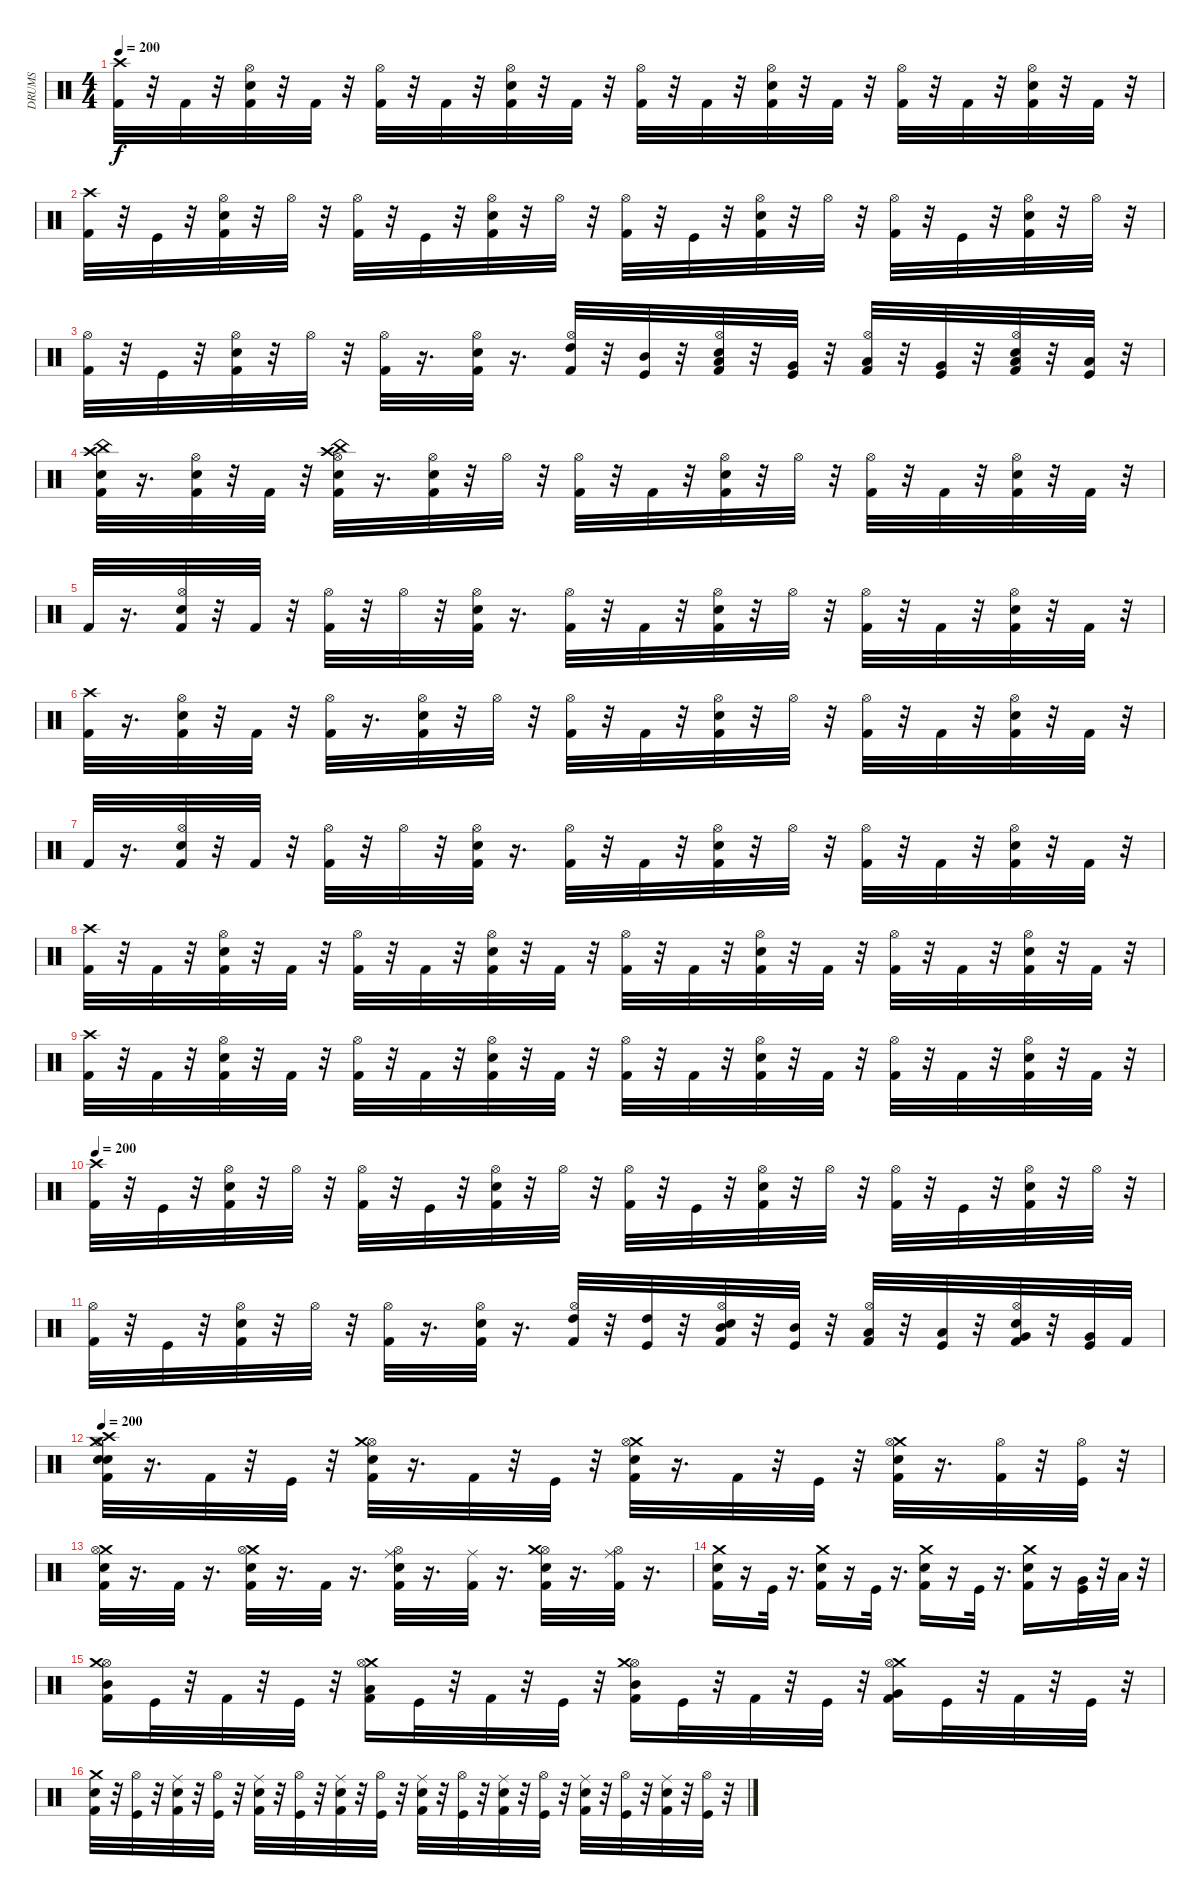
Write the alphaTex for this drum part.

\track ("DRUMS" "DRUMS") {instrument percussion}
\staff {score}
\articulation defaults
\ts (4 4)
\tempo 200
\clef neutral
\ks c
("Crash high (hit)" "Kick (hit) 2").32{dy f} r.32 "Kick (hit) 2".32 r.32 ("Hi-Hat (open)" "Snare (hit) 2" "Kick (hit) 2").32 r.32 "Kick (hit) 2".32 r.32 ("Hi-Hat (open)" "Kick (hit) 2").32 r.32 "Kick (hit) 2".32 r.32 ("Kick (hit) 2" "Snare (hit) 2" "Hi-Hat (open)").32 r.32 "Kick (hit) 2".32 r.32 ("Kick (hit) 2" "Hi-Hat (open)").32 r.32 "Kick (hit) 2".32 r.32 ("Snare (hit) 2" "Kick (hit) 2" "Hi-Hat (open)").32 r.32 "Kick (hit) 2".32 r.32 ("Hi-Hat (open)" "Kick (hit) 2").32 r.32 "Kick (hit) 2".32 r.32 ("Kick (hit) 2" "Hi-Hat (open)" "Snare (hit) 2").32 r.32 "Kick (hit) 2".32 r.32 |
("Crash high (hit)" "Kick (hit) 2").32 r.32 "Kick (hit)".32 r.32 ("Snare (hit) 2" "Hi-Hat (open)" "Kick (hit) 2").32 r.32 "Hi-Hat (open)".32 r.32 ("Kick (hit) 2" "Hi-Hat (open)").32 r.32 "Kick (hit)".32 r.32 ("Hi-Hat (open)" "Snare (hit) 2" "Kick (hit) 2").32 r.32 "Hi-Hat (open)".32 r.32 ("Hi-Hat (open)" "Kick (hit) 2").32 r.32 "Kick (hit)".32 r.32 ("Snare (hit) 2" "Kick (hit) 2" "Hi-Hat (open)").32 r.32 "Hi-Hat (open)".32 r.32 ("Kick (hit) 2" "Hi-Hat (open)").32 r.32 "Kick (hit)".32 r.32 ("Kick (hit) 2" "Hi-Hat (open)" "Snare (hit) 2").32 r.32 "Hi-Hat (open)".32 r.32 |
("Kick (hit) 2" "Hi-Hat (open)").32 r.32 "Kick (hit)".32 r.32 ("Hi-Hat (open)" "Snare (hit) 2" "Kick (hit) 2").32 r.32 "Hi-Hat (open)".32 r.32 ("Kick (hit) 2" "Hi-Hat (open)").32 r.16{d} ("Kick (hit) 2" "Snare (hit) 2" "Hi-Hat (open)").32 r.16{d} ("High Tom (hit)" "Kick (hit) 2" "Hi-Hat (open)").32 r.32 ("Kick (hit)" "Mid Tom (hit)").32 r.32 ("Low Tom (hit)" "Kick (hit) 2" "Hi-Hat (open)" "Snare (hit) 2").32 r.32 ("Kick (hit)" "Very Low Tom (hit)").32 r.32 ("Kick (hit) 2" "Hi-Hat (open)" "Low Tom (hit)").32 r.32 ("Kick (hit)" "Very Low Tom (hit)").32 r.32 ("Kick (hit) 2" "Low Floor Tom (hit)" "Snare (hit) 2" "Hi-Hat (open)").32 r.32 ("Kick (hit)" "Low Floor Tom (hit)").32 r.32 |
("China (hit)" "Snare (hit) 2" "Crash high (hit)" "Kick (hit) 2").32 r.16{d} ("Kick (hit) 2" "Hi-Hat (open)" "Snare (hit) 2").32 r.32 "Kick (hit) 2".32 r.32 ("China (hit)" "Hi-Hat (open)" "Crash high (hit)" "Kick (hit) 2" "Snare (hit) 2").32 r.16{d} ("Snare (hit) 2" "Kick (hit) 2" "Hi-Hat (open)").32 r.32 "Hi-Hat (open)".32 r.32 ("Hi-Hat (open)" "Kick (hit) 2").32 r.32 "Kick (hit) 2".32 r.32 ("Hi-Hat (open)" "Kick (hit) 2" "Snare (hit) 2").32 r.32 "Hi-Hat (open)".32 r.32 ("Hi-Hat (open)" "Kick (hit) 2").32 r.32 "Kick (hit) 2".32 r.32 ("Hi-Hat (open)" "Kick (hit) 2" "Snare (hit) 2").32 r.32 "Kick (hit) 2".32 r.32 |
"Kick (hit) 2".32 r.16{d} ("Kick (hit) 2" "Snare (hit) 2" "Hi-Hat (open)").32 r.32 "Kick (hit) 2".32 r.32 ("Kick (hit) 2" "Hi-Hat (open)").32 r.32 "Hi-Hat (open)".32 r.32 ("Kick (hit) 2" "Hi-Hat (open)" "Snare (hit) 2").32 r.16{d} ("Hi-Hat (open)" "Kick (hit) 2").32 r.32 "Kick (hit) 2".32 r.32 ("Kick (hit) 2" "Hi-Hat (open)" "Snare (hit) 2").32 r.32 "Hi-Hat (open)".32 r.32 ("Hi-Hat (open)" "Kick (hit) 2").32 r.32 "Kick (hit) 2".32 r.32 ("Hi-Hat (open)" "Snare (hit) 2" "Kick (hit) 2").32 r.32 "Kick (hit) 2".32 r.32 |
("Kick (hit) 2" "Crash high (hit)").32 r.16{d} ("Hi-Hat (open)" "Kick (hit) 2" "Snare (hit) 2").32 r.32 "Kick (hit) 2".32 r.32 ("Hi-Hat (open)" "Kick (hit) 2").32 r.16{d} ("Kick (hit) 2" "Snare (hit) 2" "Hi-Hat (open)").32 r.32 "Hi-Hat (open)".32 r.32 ("Hi-Hat (open)" "Kick (hit) 2").32 r.32 "Kick (hit) 2".32 r.32 ("Snare (hit) 2" "Hi-Hat (open)" "Kick (hit) 2").32 r.32 "Hi-Hat (open)".32 r.32 ("Kick (hit) 2" "Hi-Hat (open)").32 r.32 "Kick (hit) 2".32 r.32 ("Hi-Hat (open)" "Kick (hit) 2" "Snare (hit) 2").32 r.32 "Kick (hit) 2".32 r.32 |
"Kick (hit) 2".32 r.16{d} ("Hi-Hat (open)" "Kick (hit) 2" "Snare (hit) 2").32 r.32 "Kick (hit) 2".32 r.32 ("Kick (hit) 2" "Hi-Hat (open)").32 r.32 "Hi-Hat (open)".32 r.32 ("Kick (hit) 2" "Snare (hit) 2" "Hi-Hat (open)").32 r.16{d} ("Hi-Hat (open)" "Kick (hit) 2").32 r.32 "Kick (hit) 2".32 r.32 ("Hi-Hat (open)" "Kick (hit) 2" "Snare (hit) 2").32 r.32 "Hi-Hat (open)".32 r.32 ("Kick (hit) 2" "Hi-Hat (open)").32 r.32 "Kick (hit) 2".32 r.32 ("Kick (hit) 2" "Snare (hit) 2" "Hi-Hat (open)").32 r.32 "Kick (hit) 2".32 r.32 |
("Kick (hit) 2" "Crash high (hit)").32 r.32 "Kick (hit) 2".32 r.32 ("Kick (hit) 2" "Hi-Hat (open)" "Snare (hit) 2").32 r.32 "Kick (hit) 2".32 r.32 ("Hi-Hat (open)" "Kick (hit) 2").32 r.32 "Kick (hit) 2".32 r.32 ("Hi-Hat (open)" "Snare (hit) 2" "Kick (hit) 2").32 r.32 "Kick (hit) 2".32 r.32 ("Kick (hit) 2" "Hi-Hat (open)").32 r.32 "Kick (hit) 2".32 r.32 ("Snare (hit) 2" "Kick (hit) 2" "Hi-Hat (open)").32 r.32 "Kick (hit) 2".32 r.32 ("Hi-Hat (open)" "Kick (hit) 2").32 r.32 "Kick (hit) 2".32 r.32 ("Hi-Hat (open)" "Snare (hit) 2" "Kick (hit) 2").32 r.32 "Kick (hit) 2".32 r.32 |
("Crash high (hit)" "Kick (hit) 2").32 r.32 "Kick (hit) 2".32 r.32 ("Hi-Hat (open)" "Snare (hit) 2" "Kick (hit) 2").32 r.32 "Kick (hit) 2".32 r.32 ("Hi-Hat (open)" "Kick (hit) 2").32 r.32 "Kick (hit) 2".32 r.32 ("Kick (hit) 2" "Snare (hit) 2" "Hi-Hat (open)").32 r.32 "Kick (hit) 2".32 r.32 ("Kick (hit) 2" "Hi-Hat (open)").32 r.32 "Kick (hit) 2".32 r.32 ("Snare (hit) 2" "Kick (hit) 2" "Hi-Hat (open)").32 r.32 "Kick (hit) 2".32 r.32 ("Hi-Hat (open)" "Kick (hit) 2").32 r.32 "Kick (hit) 2".32 r.32 ("Kick (hit) 2" "Hi-Hat (open)" "Snare (hit) 2").32 r.32 "Kick (hit) 2".32 r.32 |
\tempo 200
("Crash high (hit)" "Kick (hit) 2").32 r.32 "Kick (hit)".32 r.32 ("Snare (hit) 2" "Hi-Hat (open)" "Kick (hit) 2").32 r.32 "Hi-Hat (open)".32 r.32 ("Kick (hit) 2" "Hi-Hat (open)").32 r.32 "Kick (hit)".32 r.32 ("Hi-Hat (open)" "Snare (hit) 2" "Kick (hit) 2").32 r.32 "Hi-Hat (open)".32 r.32 ("Hi-Hat (open)" "Kick (hit) 2").32 r.32 "Kick (hit)".32 r.32 ("Snare (hit) 2" "Kick (hit) 2" "Hi-Hat (open)").32 r.32 "Hi-Hat (open)".32 r.32 ("Kick (hit) 2" "Hi-Hat (open)").32 r.32 "Kick (hit)".32 r.32 ("Kick (hit) 2" "Hi-Hat (open)" "Snare (hit) 2").32 r.32 "Hi-Hat (open)".32 r.32 |
("Kick (hit) 2" "Hi-Hat (open)").32 r.32 "Kick (hit)".32 r.32 ("Hi-Hat (open)" "Snare (hit) 2" "Kick (hit) 2").32 r.32 "Hi-Hat (open)".32 r.32 ("Kick (hit) 2" "Hi-Hat (open)").32 r.16{d} ("Kick (hit) 2" "Snare (hit) 2" "Hi-Hat (open)").32 r.16{d} ("High Tom (hit)" "Kick (hit) 2" "Hi-Hat (open)").32 r.32 ("Kick (hit)" "High Tom (hit)").32 r.32 ("Snare (hit) 2" "Mid Tom (hit)" "Kick (hit) 2" "Hi-Hat (open)").32 r.32 ("Mid Tom (hit)" "Kick (hit)").32 r.32 ("Hi-Hat (open)" "Low Tom (hit)" "Kick (hit) 2").32 r.32 ("Kick (hit)" "Low Tom (hit)").32 r.32 ("Hi-Hat (open)" "Kick (hit) 2" "Very Low Tom (hit)" "Snare (hit) 2").32 r.32 ("Kick (hit)" "Very Low Tom (hit)").32 "Kick (hit) 2".32 |
\tempo 200
("Crash high (hit)" "Electric Snare (hit)" "Snare (hit) 2" "Kick (hit) 2" "Hi-Hat (open)" "Crash medium (hit)").32 r.16{d} "Kick (hit) 2".32 r.32 "Kick (hit)".32 r.32 ("Hi-Hat (open)" "Kick (hit) 2" "Crash medium (hit)" "Snare (hit) 2").32 r.16{d} "Kick (hit) 2".32 r.32 "Kick (hit)".32 r.32 ("Kick (hit) 2" "Crash medium (hit)" "Hi-Hat (open)" "Snare (hit) 2").32 r.16{d} "Kick (hit) 2".32 r.32 "Kick (hit)".32 r.32 ("Snare (hit) 2" "Kick (hit) 2" "Crash medium (hit)" "Hi-Hat (open)").32 r.16{d} ("Hi-Hat (open)" "Kick (hit) 2").32 r.32 ("Kick (hit)" "Hi-Hat (open)").32 r.32 |
("Crash medium (hit)" "Hi-Hat (open)" "Kick (hit) 2" "Snare (hit) 2").32 r.16{d} "Kick (hit) 2".32 r.16{d} ("Crash medium (hit)" "Kick (hit) 2" "Hi-Hat (open)" "Snare (hit) 2").32 r.16{d} "Kick (hit) 2".32 r.16{d} ("Ride (middle)" "Hi-Hat (open)" "Snare (hit) 2" "Kick (hit) 2").32 r.16{d} ("Ride (middle)" "Kick (hit) 2").32 r.16{d} ("Hi-Hat (open)" "Kick (hit) 2" "Snare (hit) 2" "Crash medium (hit)").32 r.16{d} ("Hi-Hat (open)" "Kick (hit) 2" "Ride (middle)").32 r.16{d} |
("Crash medium (hit)" "Kick (hit) 2" "Snare (hit) 2").16 r.16 "Kick (hit)".32 r.16{d} ("Crash medium (hit)" "Snare (hit) 2" "Kick (hit) 2").16 r.16 "Kick (hit)".32 r.16{d} ("Snare (hit) 2" "Kick (hit) 2" "Crash medium (hit)").16 r.16 "Kick (hit)".32 r.16{d} ("Kick (hit) 2" "Crash medium (hit)" "Snare (hit) 2").16 r.16 ("Very Low Tom (hit)" "Kick (hit)").32 r.32 "Low Floor Tom (hit)".32 r.32 |
("Hi-Hat (open)" "Mid Tom (hit)" "Kick (hit) 2" "Crash medium (hit)").16 "Kick (hit)".32 r.32 "Kick (hit) 2".32 r.32 "Kick (hit)".32 r.32 ("Crash medium (hit)" "Hi-Hat (open)" "Kick (hit) 2" "Low Tom (hit)").16 "Kick (hit)".32 r.32 "Kick (hit) 2".32 r.32 "Kick (hit)".32 r.32 ("Kick (hit) 2" "Hi-Hat (open)" "Crash medium (hit)" "Mid Tom (hit)").16 "Kick (hit)".32 r.32 "Kick (hit) 2".32 r.32 "Kick (hit)".32 r.32 ("Kick (hit) 2" "Crash medium (hit)" "Hi-Hat (open)" "Very Low Tom (hit)").16 "Kick (hit)".32 r.32 "Kick (hit) 2".32 r.32 "Kick (hit)".32 r.32 |
("Snare (hit) 2" "Kick (hit) 2" "Crash medium (hit)").32 r.32 ("Kick (hit)" "Hi-Hat (open)").32 r.32 ("Kick (hit) 2" "Ride (middle)" "Snare (hit) 2").32 r.32 ("Hi-Hat (open)" "Kick (hit)").32 r.32 ("Ride (middle)" "Snare (hit) 2" "Kick (hit) 2").32 r.32 ("Kick (hit)" "Hi-Hat (open)").32 r.32 ("Kick (hit) 2" "Snare (hit) 2" "Ride (middle)").32 r.32 ("Hi-Hat (open)" "Kick (hit)").32 r.32 ("Snare (hit) 2" "Ride (middle)" "Kick (hit) 2").32 r.32 ("Kick (hit)" "Hi-Hat (open)").32 r.32 ("Snare (hit) 2" "Kick (hit) 2" "Ride (middle)").32 r.32 ("Kick (hit)" "Hi-Hat (open)").32 r.32 ("Snare (hit) 2" "Ride (middle)" "Kick (hit) 2").32 r.32 ("Kick (hit)" "Hi-Hat (open)").32 r.32 ("Snare (hit) 2" "Kick (hit) 2" "Ride (middle)").32 r.32 ("Hi-Hat (open)" "Kick (hit)").32 r.32
